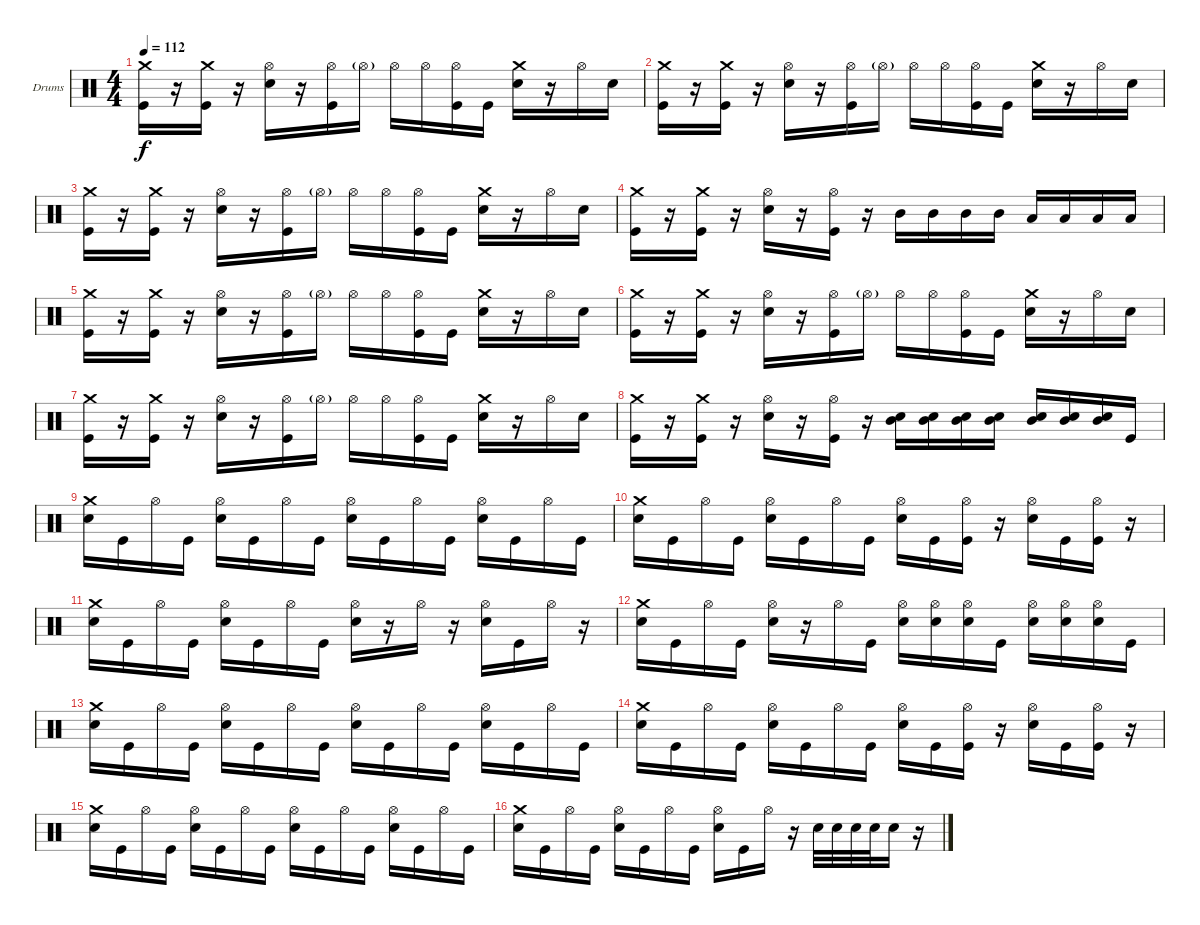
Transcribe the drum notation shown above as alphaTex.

\bracketExtendMode groupsimilarinstruments
\firstSystemTrackNameOrientation horizontal
\otherSystemsTrackNameOrientation horizontal
\track ("Drumkit" "Drums") {instrument percussion}
\staff {score}
\articulation defaults
\ts (4 4)
\tempo 112
\clef neutral
\ks c
("Crash medium (hit)" "Kick (hit)").16{dy f} r.16 ("Crash medium (hit)" "Kick (hit)").16 r.16 ("Hi-Hat (open)" "Snare (hit) 2").16 r.16 ("Hi-Hat (open)" "Kick (hit)").16 "Hi-Hat (open)"{g}.16 "Hi-Hat (open)".16 "Hi-Hat (open)".16 ("Hi-Hat (open)" "Kick (hit)").16 "Kick (hit)".16 ("Crash medium (hit)" "Snare (hit) 2").16 r.16 "Hi-Hat (open)".16 "Snare (hit) 2".16 |
("Crash medium (hit)" "Kick (hit)").16 r.16 ("Crash medium (hit)" "Kick (hit)").16 r.16 ("Hi-Hat (open)" "Snare (hit) 2").16 r.16 ("Hi-Hat (open)" "Kick (hit)").16 "Hi-Hat (open)"{g}.16 "Hi-Hat (open)".16 "Hi-Hat (open)".16 ("Hi-Hat (open)" "Kick (hit)").16 "Kick (hit)".16 ("Crash medium (hit)" "Snare (hit) 2").16 r.16 "Hi-Hat (open)".16 "Snare (hit) 2".16 |
("Crash medium (hit)" "Kick (hit)").16 r.16 ("Crash medium (hit)" "Kick (hit)").16 r.16 ("Hi-Hat (open)" "Snare (hit) 2").16 r.16 ("Hi-Hat (open)" "Kick (hit)").16 "Hi-Hat (open)"{g}.16 "Hi-Hat (open)".16 "Hi-Hat (open)".16 ("Hi-Hat (open)" "Kick (hit)").16 "Kick (hit)".16 ("Crash medium (hit)" "Snare (hit) 2").16 r.16 "Hi-Hat (open)".16 "Snare (hit) 2".16 |
("Crash medium (hit)" "Kick (hit)").16 r.16 ("Crash medium (hit)" "Kick (hit)").16 r.16 ("Hi-Hat (open)" "Snare (hit) 2").16 r.16 ("Hi-Hat (open)" "Kick (hit)").16 r.16 "Mid Tom (hit)".16 "Mid Tom (hit)".16 "Mid Tom (hit)".16 "Mid Tom (hit)".16 "Low Tom (hit)".16 "Low Tom (hit)".16 "Low Tom (hit)".16 "Low Tom (hit)".16 |
("Crash medium (hit)" "Kick (hit)").16 r.16 ("Crash medium (hit)" "Kick (hit)").16 r.16 ("Hi-Hat (open)" "Snare (hit) 2").16 r.16 ("Hi-Hat (open)" "Kick (hit)").16 "Hi-Hat (open)"{g}.16 "Hi-Hat (open)".16 "Hi-Hat (open)".16 ("Hi-Hat (open)" "Kick (hit)").16 "Kick (hit)".16 ("Crash medium (hit)" "Snare (hit) 2").16 r.16 "Hi-Hat (open)".16 "Snare (hit) 2".16 |
("Crash medium (hit)" "Kick (hit)").16 r.16 ("Crash medium (hit)" "Kick (hit)").16 r.16 ("Hi-Hat (open)" "Snare (hit) 2").16 r.16 ("Hi-Hat (open)" "Kick (hit)").16 "Hi-Hat (open)"{g}.16 "Hi-Hat (open)".16 "Hi-Hat (open)".16 ("Hi-Hat (open)" "Kick (hit)").16 "Kick (hit)".16 ("Crash medium (hit)" "Snare (hit) 2").16 r.16 "Hi-Hat (open)".16 "Snare (hit) 2".16 |
("Crash medium (hit)" "Kick (hit)").16 r.16 ("Crash medium (hit)" "Kick (hit)").16 r.16 ("Hi-Hat (open)" "Snare (hit) 2").16 r.16 ("Hi-Hat (open)" "Kick (hit)").16 "Hi-Hat (open)"{g}.16 "Hi-Hat (open)".16 "Hi-Hat (open)".16 ("Hi-Hat (open)" "Kick (hit)").16 "Kick (hit)".16 ("Crash medium (hit)" "Snare (hit) 2").16 r.16 "Hi-Hat (open)".16 "Snare (hit) 2".16 |
("Crash medium (hit)" "Kick (hit)").16 r.16 ("Crash medium (hit)" "Kick (hit)").16 r.16 ("Hi-Hat (open)" "Snare (hit) 2").16 r.16 ("Hi-Hat (open)" "Kick (hit)").16 r.16 ("Mid Tom (hit)" "Snare (hit) 2").16 ("Mid Tom (hit)" "Snare (hit) 2").16 ("Mid Tom (hit)" "Snare (hit) 2").16 ("Mid Tom (hit)" "Snare (hit) 2").16 ("Mid Tom (hit)" "Snare (hit) 2").16 ("Mid Tom (hit)" "Snare (hit) 2").16 ("Mid Tom (hit)" "Snare (hit) 2").16 "Kick (hit)".16 |
("Crash medium (hit)" "Snare (hit) 2").16 "Kick (hit)".16 "Hi-Hat (open)".16 "Kick (hit)".16 ("Hi-Hat (open)" "Snare (hit) 2").16 "Kick (hit)".16 "Hi-Hat (open)".16 "Kick (hit)".16 ("Hi-Hat (open)" "Snare (hit) 2").16 "Kick (hit)".16 "Hi-Hat (open)".16 "Kick (hit)".16 ("Hi-Hat (open)" "Snare (hit) 2").16 "Kick (hit)".16 "Hi-Hat (open)".16 "Kick (hit)".16 |
("Crash medium (hit)" "Snare (hit) 2").16 "Kick (hit)".16 "Hi-Hat (open)".16 "Kick (hit)".16 ("Hi-Hat (open)" "Snare (hit) 2").16 "Kick (hit)".16 "Hi-Hat (open)".16 "Kick (hit)".16 ("Hi-Hat (open)" "Snare (hit) 2").16 "Kick (hit)".16 ("Hi-Hat (open)" "Kick (hit)").16 r.16 ("Hi-Hat (open)" "Snare (hit) 2").16 "Kick (hit)".16 ("Hi-Hat (open)" "Kick (hit)").16 r.16 |
("Crash medium (hit)" "Snare (hit) 2").16 "Kick (hit)".16 "Hi-Hat (open)".16 "Kick (hit)".16 ("Hi-Hat (open)" "Snare (hit) 2").16 "Kick (hit)".16 "Hi-Hat (open)".16 "Kick (hit)".16 ("Hi-Hat (open)" "Snare (hit) 2").16 r.16 "Hi-Hat (open)".16 r.16 ("Hi-Hat (open)" "Snare (hit) 2").16 "Kick (hit)".16 "Hi-Hat (open)".16 r.16 |
("Crash medium (hit)" "Snare (hit) 2").16 "Kick (hit)".16 "Hi-Hat (open)".16 "Kick (hit)".16 ("Hi-Hat (open)" "Snare (hit) 2").16 r.16 "Hi-Hat (open)".16 "Kick (hit)".16 ("Hi-Hat (open)" "Snare (hit) 2").16 ("Hi-Hat (open)" "Snare (hit) 2").16 ("Hi-Hat (open)" "Snare (hit) 2").16 "Kick (hit)".16 ("Hi-Hat (open)" "Snare (hit) 2").16 ("Hi-Hat (open)" "Snare (hit) 2").16 ("Hi-Hat (open)" "Snare (hit) 2").16 "Kick (hit)".16 |
("Crash medium (hit)" "Snare (hit) 2").16 "Kick (hit)".16 "Hi-Hat (open)".16 "Kick (hit)".16 ("Hi-Hat (open)" "Snare (hit) 2").16 "Kick (hit)".16 "Hi-Hat (open)".16 "Kick (hit)".16 ("Hi-Hat (open)" "Snare (hit) 2").16 "Kick (hit)".16 "Hi-Hat (open)".16 "Kick (hit)".16 ("Hi-Hat (open)" "Snare (hit) 2").16 "Kick (hit)".16 "Hi-Hat (open)".16 "Kick (hit)".16 |
("Crash medium (hit)" "Snare (hit) 2").16 "Kick (hit)".16 "Hi-Hat (open)".16 "Kick (hit)".16 ("Hi-Hat (open)" "Snare (hit) 2").16 "Kick (hit)".16 "Hi-Hat (open)".16 "Kick (hit)".16 ("Hi-Hat (open)" "Snare (hit) 2").16 "Kick (hit)".16 ("Hi-Hat (open)" "Kick (hit)").16 r.16 ("Hi-Hat (open)" "Snare (hit) 2").16 "Kick (hit)".16 ("Hi-Hat (open)" "Kick (hit)").16 r.16 |
("Crash medium (hit)" "Snare (hit) 2").16 "Kick (hit)".16 "Hi-Hat (open)".16 "Kick (hit)".16 ("Hi-Hat (open)" "Snare (hit) 2").16 "Kick (hit)".16 "Hi-Hat (open)".16 "Kick (hit)".16 ("Hi-Hat (open)" "Snare (hit) 2").16 "Kick (hit)".16 "Hi-Hat (open)".16 "Kick (hit)".16 ("Hi-Hat (open)" "Snare (hit) 2").16 "Kick (hit)".16 "Hi-Hat (open)".16 "Kick (hit)".16 |
("Crash medium (hit)" "Snare (hit) 2").16 "Kick (hit)".16 "Hi-Hat (open)".16 "Kick (hit)".16 ("Hi-Hat (open)" "Snare (hit) 2").16 "Kick (hit)".16 "Hi-Hat (open)".16 "Kick (hit)".16 ("Hi-Hat (open)" "Snare (hit) 2").16 "Kick (hit)".16 "Hi-Hat (open)".16 r.16 "Snare (hit) 2".32 "Snare (hit) 2".32 "Snare (hit) 2".32 "Snare (hit) 2".32 "Snare (hit) 2".16 r.16
